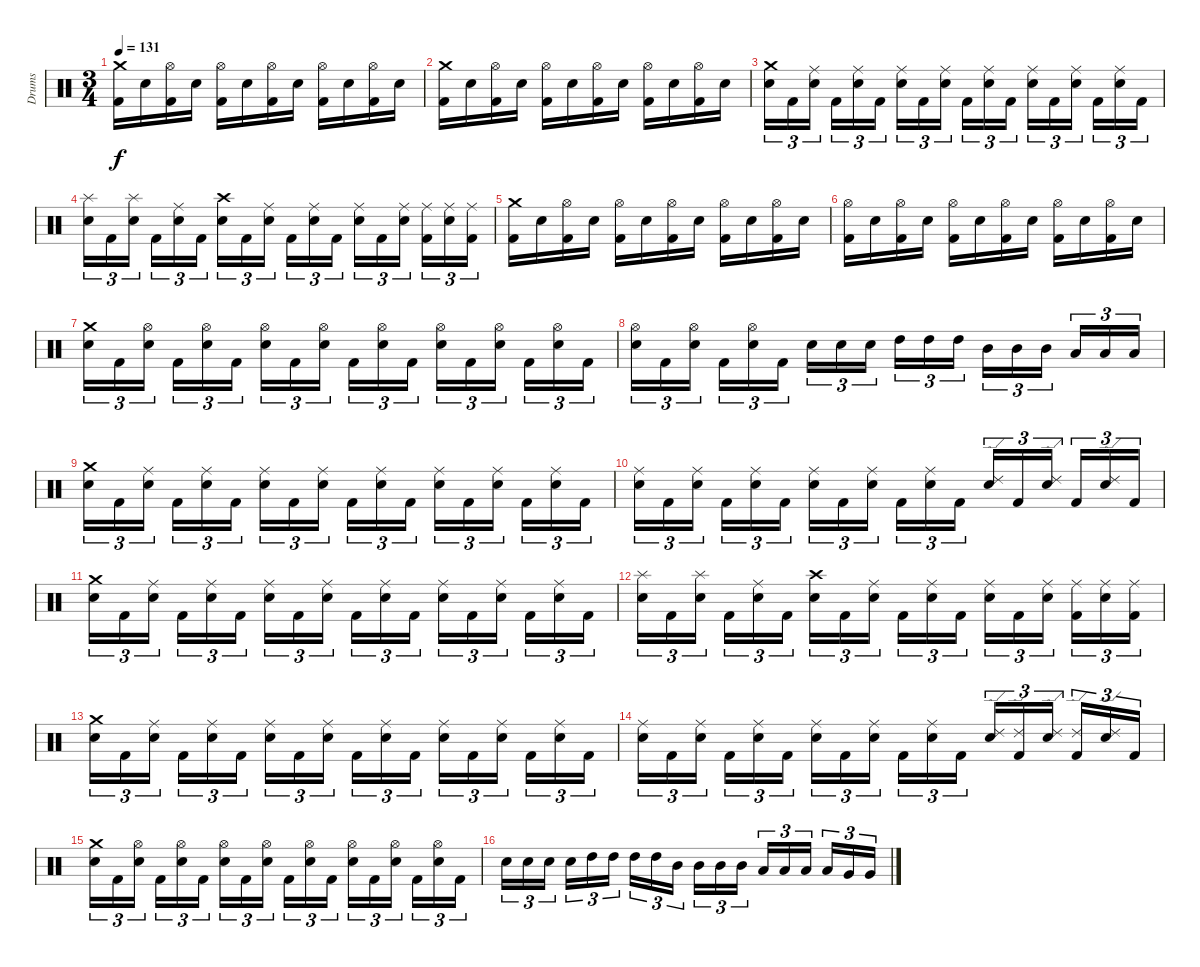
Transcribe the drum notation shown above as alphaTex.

\track ("Drums" "Drums") {instrument percussion}
\staff {score}
\articulation defaults
\ts (3 4)
\tempo 131
\clef neutral
\ks c
("Kick (hit) 2" "Crash medium (hit)").16{dy f} "Electric Snare (hit)".16 ("Kick (hit) 2" "Hi-Hat (open)").16 "Electric Snare (hit)".16 ("Kick (hit) 2" "Hi-Hat (open)").16 "Electric Snare (hit)".16 ("Kick (hit) 2" "Hi-Hat (open)").16 "Electric Snare (hit)".16 ("Kick (hit) 2" "Hi-Hat (open)").16 "Electric Snare (hit)".16 ("Kick (hit) 2" "Hi-Hat (open)").16 "Electric Snare (hit)".16 |
("Kick (hit) 2" "Crash medium (hit)").16 "Electric Snare (hit)".16 ("Kick (hit) 2" "Hi-Hat (open)").16 "Electric Snare (hit)".16 ("Kick (hit) 2" "Hi-Hat (open)").16 "Electric Snare (hit)".16 ("Kick (hit) 2" "Hi-Hat (open)").16 "Electric Snare (hit)".16 ("Kick (hit) 2" "Hi-Hat (open)").16 "Electric Snare (hit)".16 ("Kick (hit) 2" "Hi-Hat (open)").16 "Electric Snare (hit)".16 |
("Electric Snare (hit)" "Crash medium (hit)").16{tu (3 2)} "Kick (hit) 2".16{tu (3 2)} ("Electric Snare (hit)" "Ride (middle)").16{tu (3 2)} "Kick (hit) 2".16{tu (3 2)} ("Electric Snare (hit)" "Ride (middle)").16{tu (3 2)} "Kick (hit) 2".16{tu (3 2)} ("Electric Snare (hit)" "Ride (middle)").16{tu (3 2)} "Kick (hit) 2".16{tu (3 2)} ("Electric Snare (hit)" "Ride (middle)").16{tu (3 2)} "Kick (hit) 2".16{tu (3 2)} ("Electric Snare (hit)" "Ride (middle)").16{tu (3 2)} "Kick (hit) 2".16{tu (3 2)} ("Electric Snare (hit)" "Ride (middle)").16{tu (3 2)} "Kick (hit) 2".16{tu (3 2)} ("Electric Snare (hit)" "Ride (middle)").16{tu (3 2)} "Kick (hit) 2".16{tu (3 2)} ("Electric Snare (hit)" "Ride (middle)").16{tu (3 2)} "Kick (hit) 2".16{tu (3 2)} |
("Electric Snare (hit)" "Splash (hit)").16{tu (3 2)} "Kick (hit) 2".16{tu (3 2)} ("Electric Snare (hit)" "Splash (hit)").16{tu (3 2)} "Kick (hit) 2".16{tu (3 2)} ("Electric Snare (hit)" "Ride (middle)").16{tu (3 2)} "Kick (hit) 2".16{tu (3 2)} ("Electric Snare (hit)" "Crash high (hit)").16{tu (3 2)} "Kick (hit) 2".16{tu (3 2)} ("Electric Snare (hit)" "Ride (middle)").16{tu (3 2)} "Kick (hit) 2".16{tu (3 2)} ("Electric Snare (hit)" "Ride (middle)").16{tu (3 2)} "Kick (hit) 2".16{tu (3 2)} ("Electric Snare (hit)" "Ride (middle)").16{tu (3 2)} "Kick (hit) 2".16{tu (3 2)} ("Electric Snare (hit)" "Ride (middle)").16{tu (3 2)} ("Kick (hit) 2" "Ride (middle)").16{tu (3 2)} ("Electric Snare (hit)" "Ride (middle)").16{tu (3 2)} ("Kick (hit) 2" "Ride (middle)").16{tu (3 2)} |
("Kick (hit) 2" "Crash medium (hit)").16 "Electric Snare (hit)".16 ("Kick (hit) 2" "Hi-Hat (open)").16 "Electric Snare (hit)".16 ("Kick (hit) 2" "Hi-Hat (open)").16 "Electric Snare (hit)".16 ("Kick (hit) 2" "Hi-Hat (open)").16 "Electric Snare (hit)".16 ("Kick (hit) 2" "Hi-Hat (open)").16 "Electric Snare (hit)".16 ("Kick (hit) 2" "Hi-Hat (open)").16 "Electric Snare (hit)".16 |
("Kick (hit) 2" "Hi-Hat (open)").16 "Electric Snare (hit)".16 ("Kick (hit) 2" "Hi-Hat (open)").16 "Electric Snare (hit)".16 ("Kick (hit) 2" "Hi-Hat (open)").16 "Electric Snare (hit)".16 ("Kick (hit) 2" "Hi-Hat (open)").16 "Electric Snare (hit)".16 ("Kick (hit) 2" "Hi-Hat (open)").16 "Electric Snare (hit)".16 ("Kick (hit) 2" "Hi-Hat (open)").16 "Electric Snare (hit)".16 |
("Electric Snare (hit)" "Crash medium (hit)").16{tu (3 2)} "Kick (hit) 2".16{tu (3 2)} ("Electric Snare (hit)" "Hi-Hat (open)").16{tu (3 2)} "Kick (hit) 2".16{tu (3 2)} ("Electric Snare (hit)" "Hi-Hat (open)").16{tu (3 2)} "Kick (hit) 2".16{tu (3 2)} ("Electric Snare (hit)" "Hi-Hat (open)").16{tu (3 2)} "Kick (hit) 2".16{tu (3 2)} ("Electric Snare (hit)" "Hi-Hat (open)").16{tu (3 2)} "Kick (hit) 2".16{tu (3 2)} ("Electric Snare (hit)" "Hi-Hat (open)").16{tu (3 2)} "Kick (hit) 2".16{tu (3 2)} ("Electric Snare (hit)" "Hi-Hat (open)").16{tu (3 2)} "Kick (hit) 2".16{tu (3 2)} ("Electric Snare (hit)" "Hi-Hat (open)").16{tu (3 2)} "Kick (hit) 2".16{tu (3 2)} ("Electric Snare (hit)" "Hi-Hat (open)").16{tu (3 2)} "Kick (hit) 2".16{tu (3 2)} |
("Electric Snare (hit)" "Hi-Hat (open)").16{tu (3 2)} "Kick (hit) 2".16{tu (3 2)} ("Electric Snare (hit)" "Hi-Hat (open)").16{tu (3 2)} "Kick (hit) 2".16{tu (3 2)} ("Electric Snare (hit)" "Hi-Hat (open)").16{tu (3 2)} "Kick (hit) 2".16{tu (3 2)} "Electric Snare (hit)".16{tu (3 2)} "Electric Snare (hit)".16{tu (3 2)} "Electric Snare (hit)".16{tu (3 2)} "High Tom (hit)".16{tu (3 2)} "High Tom (hit)".16{tu (3 2)} "High Tom (hit)".16{tu (3 2)} "Mid Tom (hit)".16{tu (3 2)} "Mid Tom (hit)".16{tu (3 2)} "Mid Tom (hit)".16{tu (3 2)} "Low Tom (hit)".16{tu (3 2)} "Low Tom (hit)".16{tu (3 2)} "Low Tom (hit)".16{tu (3 2)} |
("Electric Snare (hit)" "Crash medium (hit)").16{tu (3 2)} "Kick (hit) 2".16{tu (3 2)} ("Electric Snare (hit)" "Ride (middle)").16{tu (3 2)} "Kick (hit) 2".16{tu (3 2)} ("Electric Snare (hit)" "Ride (middle)").16{tu (3 2)} "Kick (hit) 2".16{tu (3 2)} ("Electric Snare (hit)" "Ride (middle)").16{tu (3 2)} "Kick (hit) 2".16{tu (3 2)} ("Electric Snare (hit)" "Ride (middle)").16{tu (3 2)} "Kick (hit) 2".16{tu (3 2)} ("Electric Snare (hit)" "Ride (middle)").16{tu (3 2)} "Kick (hit) 2".16{tu (3 2)} ("Electric Snare (hit)" "Ride (middle)").16{tu (3 2)} "Kick (hit) 2".16{tu (3 2)} ("Electric Snare (hit)" "Ride (middle)").16{tu (3 2)} "Kick (hit) 2".16{tu (3 2)} ("Electric Snare (hit)" "Ride (middle)").16{tu (3 2)} "Kick (hit) 2".16{tu (3 2)} |
("Electric Snare (hit)" "Ride (middle)").16{tu (3 2)} "Kick (hit) 2".16{tu (3 2)} ("Electric Snare (hit)" "Ride (middle)").16{tu (3 2)} "Kick (hit) 2".16{tu (3 2)} ("Electric Snare (hit)" "Ride (middle)").16{tu (3 2)} "Kick (hit) 2".16{tu (3 2)} ("Electric Snare (hit)" "Ride (middle)").16{tu (3 2)} "Kick (hit) 2".16{tu (3 2)} ("Electric Snare (hit)" "Ride (middle)").16{tu (3 2)} "Kick (hit) 2".16{tu (3 2)} ("Electric Snare (hit)" "Ride (middle)").16{tu (3 2)} "Kick (hit) 2".16{tu (3 2)} ("Electric Snare (hit)" "Ride (edge) 2").16{tu (3 2)} "Kick (hit) 2".16{tu (3 2)} ("Electric Snare (hit)" "Ride (edge) 2").16{tu (3 2)} "Kick (hit) 2".16{tu (3 2)} ("Electric Snare (hit)" "Ride (edge) 2").16{tu (3 2)} "Kick (hit) 2".16{tu (3 2)} |
("Electric Snare (hit)" "Crash medium (hit)").16{tu (3 2)} "Kick (hit) 2".16{tu (3 2)} ("Electric Snare (hit)" "Ride (middle)").16{tu (3 2)} "Kick (hit) 2".16{tu (3 2)} ("Electric Snare (hit)" "Ride (middle)").16{tu (3 2)} "Kick (hit) 2".16{tu (3 2)} ("Electric Snare (hit)" "Ride (middle)").16{tu (3 2)} "Kick (hit) 2".16{tu (3 2)} ("Electric Snare (hit)" "Ride (middle)").16{tu (3 2)} "Kick (hit) 2".16{tu (3 2)} ("Electric Snare (hit)" "Ride (middle)").16{tu (3 2)} "Kick (hit) 2".16{tu (3 2)} ("Electric Snare (hit)" "Ride (middle)").16{tu (3 2)} "Kick (hit) 2".16{tu (3 2)} ("Electric Snare (hit)" "Ride (middle)").16{tu (3 2)} "Kick (hit) 2".16{tu (3 2)} ("Electric Snare (hit)" "Ride (middle)").16{tu (3 2)} "Kick (hit) 2".16{tu (3 2)} |
("Electric Snare (hit)" "Splash (hit)").16{tu (3 2)} "Kick (hit) 2".16{tu (3 2)} ("Electric Snare (hit)" "Splash (hit)").16{tu (3 2)} "Kick (hit) 2".16{tu (3 2)} ("Electric Snare (hit)" "Ride (middle)").16{tu (3 2)} "Kick (hit) 2".16{tu (3 2)} ("Electric Snare (hit)" "Crash high (hit)").16{tu (3 2)} "Kick (hit) 2".16{tu (3 2)} ("Electric Snare (hit)" "Ride (middle)").16{tu (3 2)} "Kick (hit) 2".16{tu (3 2)} ("Electric Snare (hit)" "Ride (middle)").16{tu (3 2)} "Kick (hit) 2".16{tu (3 2)} ("Electric Snare (hit)" "Ride (middle)").16{tu (3 2)} "Kick (hit) 2".16{tu (3 2)} ("Electric Snare (hit)" "Ride (middle)").16{tu (3 2)} ("Kick (hit) 2" "Ride (middle)").16{tu (3 2)} ("Electric Snare (hit)" "Ride (middle)").16{tu (3 2)} ("Kick (hit) 2" "Ride (middle)").16{tu (3 2)} |
("Electric Snare (hit)" "Crash medium (hit)").16{tu (3 2)} "Kick (hit) 2".16{tu (3 2)} ("Electric Snare (hit)" "Ride (middle)").16{tu (3 2)} "Kick (hit) 2".16{tu (3 2)} ("Electric Snare (hit)" "Ride (middle)").16{tu (3 2)} "Kick (hit) 2".16{tu (3 2)} ("Electric Snare (hit)" "Ride (middle)").16{tu (3 2)} "Kick (hit) 2".16{tu (3 2)} ("Electric Snare (hit)" "Ride (middle)").16{tu (3 2)} "Kick (hit) 2".16{tu (3 2)} ("Electric Snare (hit)" "Ride (middle)").16{tu (3 2)} "Kick (hit) 2".16{tu (3 2)} ("Electric Snare (hit)" "Ride (middle)").16{tu (3 2)} "Kick (hit) 2".16{tu (3 2)} ("Electric Snare (hit)" "Ride (middle)").16{tu (3 2)} "Kick (hit) 2".16{tu (3 2)} ("Electric Snare (hit)" "Ride (middle)").16{tu (3 2)} "Kick (hit) 2".16{tu (3 2)} |
("Electric Snare (hit)" "Ride (middle)").16{tu (3 2)} "Kick (hit) 2".16{tu (3 2)} ("Electric Snare (hit)" "Ride (middle)").16{tu (3 2)} "Kick (hit) 2".16{tu (3 2)} ("Electric Snare (hit)" "Ride (middle)").16{tu (3 2)} "Kick (hit) 2".16{tu (3 2)} ("Electric Snare (hit)" "Ride (middle)").16{tu (3 2)} "Kick (hit) 2".16{tu (3 2)} ("Electric Snare (hit)" "Ride (middle)").16{tu (3 2)} "Kick (hit) 2".16{tu (3 2)} ("Electric Snare (hit)" "Ride (middle)").16{tu (3 2)} "Kick (hit) 2".16{tu (3 2)} ("Electric Snare (hit)" "Ride (edge) 2").16{tu (3 2)} ("Kick (hit) 2" "Ride (edge) 2").16{tu (3 2)} ("Electric Snare (hit)" "Ride (edge) 2").16{tu (3 2)} ("Kick (hit) 2" "Ride (edge) 2").16{tu (3 2)} ("Electric Snare (hit)" "Ride (edge) 2").16{tu (3 2)} "Kick (hit) 2".16{tu (3 2)} |
("Electric Snare (hit)" "Crash medium (hit)").16{tu (3 2)} "Kick (hit) 2".16{tu (3 2)} ("Electric Snare (hit)" "Hi-Hat (open)").16{tu (3 2)} "Kick (hit) 2".16{tu (3 2)} ("Electric Snare (hit)" "Hi-Hat (open)").16{tu (3 2)} "Kick (hit) 2".16{tu (3 2)} ("Electric Snare (hit)" "Hi-Hat (open)").16{tu (3 2)} "Kick (hit) 2".16{tu (3 2)} ("Electric Snare (hit)" "Hi-Hat (open)").16{tu (3 2)} "Kick (hit) 2".16{tu (3 2)} ("Electric Snare (hit)" "Hi-Hat (open)").16{tu (3 2)} "Kick (hit) 2".16{tu (3 2)} ("Electric Snare (hit)" "Hi-Hat (open)").16{tu (3 2)} "Kick (hit) 2".16{tu (3 2)} ("Electric Snare (hit)" "Hi-Hat (open)").16{tu (3 2)} "Kick (hit) 2".16{tu (3 2)} ("Electric Snare (hit)" "Hi-Hat (open)").16{tu (3 2)} "Kick (hit) 2".16{tu (3 2)} |
"Electric Snare (hit)".16{tu (3 2)} "Electric Snare (hit)".16{tu (3 2)} "Electric Snare (hit)".16{tu (3 2)} "Electric Snare (hit)".16{tu (3 2)} "High Tom (hit)".16{tu (3 2)} "High Tom (hit)".16{tu (3 2)} "High Tom (hit)".16{tu (3 2)} "High Tom (hit)".16{tu (3 2)} "Mid Tom (hit)".16{tu (3 2)} "Mid Tom (hit)".16{tu (3 2)} "Mid Tom (hit)".16{tu (3 2)} "Mid Tom (hit)".16{tu (3 2)} "Low Tom (hit)".16{tu (3 2)} "Low Tom (hit)".16{tu (3 2)} "Low Tom (hit)".16{tu (3 2)} "Low Tom (hit)".16{tu (3 2)} "Very Low Tom (hit)".16{tu (3 2)} "Very Low Tom (hit)".16{tu (3 2)}
